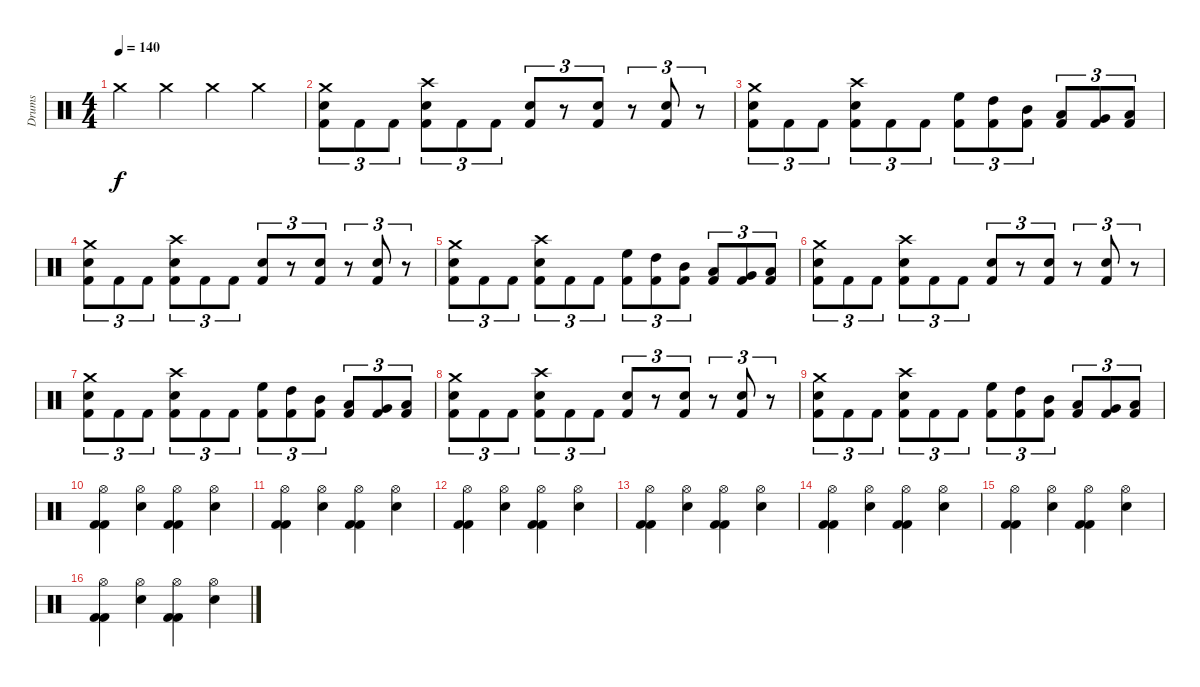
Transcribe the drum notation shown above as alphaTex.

\track ("Drums" "Drums") {instrument percussion}
\staff {score}
\articulation defaults
\ts (4 4)
\tempo 140
\clef neutral
\ks c "Crash medium (hit)".4{dy f} "Crash medium (hit)".4 "Crash medium (hit)".4 "Crash medium (hit)".4
|
("Crash medium (hit)" "Electric Snare (hit)" "Kick (hit) 2").8{tu (3 2)} "Kick (hit) 2".8{tu (3 2)} "Kick (hit) 2".8{tu (3 2)} ("Crash high (hit)" "Electric Snare (hit)" "Kick (hit) 2").8{tu (3 2)} "Kick (hit) 2".8{tu (3 2)} "Kick (hit) 2".8{tu (3 2)} ("Electric Snare (hit)" "Kick (hit) 2").8{tu (3 2)} r.8{tu (3 2)} ("Electric Snare (hit)" "Kick (hit) 2").8{tu (3 2)} r.8{tu (3 2)} ("Electric Snare (hit)" "Kick (hit) 2").8{tu (3 2)} r.8{tu (3 2)} |
("Crash medium (hit)" "Electric Snare (hit)" "Kick (hit) 2").8{tu (3 2)} "Kick (hit) 2".8{tu (3 2)} "Kick (hit) 2".8{tu (3 2)} ("Crash high (hit)" "Electric Snare (hit)" "Kick (hit) 2").8{tu (3 2)} "Kick (hit) 2".8{tu (3 2)} "Kick (hit) 2".8{tu (3 2)} ("High Floor Tom (hit)" "Kick (hit) 2").8{tu (3 2)} ("High Tom (hit)" "Kick (hit) 2").8{tu (3 2)} ("Mid Tom (hit)" "Kick (hit) 2").8{tu (3 2)} ("Low Tom (hit)" "Kick (hit) 2").8{tu (3 2)} ("Very Low Tom (hit)" "Kick (hit) 2").8{tu (3 2)} ("Low Floor Tom (hit)" "Kick (hit) 2").8{tu (3 2)} |
("Crash medium (hit)" "Electric Snare (hit)" "Kick (hit) 2").8{tu (3 2)} "Kick (hit) 2".8{tu (3 2)} "Kick (hit) 2".8{tu (3 2)} ("Crash high (hit)" "Electric Snare (hit)" "Kick (hit) 2").8{tu (3 2)} "Kick (hit) 2".8{tu (3 2)} "Kick (hit) 2".8{tu (3 2)} ("Electric Snare (hit)" "Kick (hit) 2").8{tu (3 2)} r.8{tu (3 2)} ("Electric Snare (hit)" "Kick (hit) 2").8{tu (3 2)} r.8{tu (3 2)} ("Electric Snare (hit)" "Kick (hit) 2").8{tu (3 2)} r.8{tu (3 2)} |
("Crash medium (hit)" "Electric Snare (hit)" "Kick (hit) 2").8{tu (3 2)} "Kick (hit) 2".8{tu (3 2)} "Kick (hit) 2".8{tu (3 2)} ("Crash high (hit)" "Electric Snare (hit)" "Kick (hit) 2").8{tu (3 2)} "Kick (hit) 2".8{tu (3 2)} "Kick (hit) 2".8{tu (3 2)} ("High Floor Tom (hit)" "Kick (hit) 2").8{tu (3 2)} ("High Tom (hit)" "Kick (hit) 2").8{tu (3 2)} ("Mid Tom (hit)" "Kick (hit) 2").8{tu (3 2)} ("Low Tom (hit)" "Kick (hit) 2").8{tu (3 2)} ("Very Low Tom (hit)" "Kick (hit) 2").8{tu (3 2)} ("Low Floor Tom (hit)" "Kick (hit) 2").8{tu (3 2)} |
("Crash medium (hit)" "Electric Snare (hit)" "Kick (hit) 2").8{tu (3 2)} "Kick (hit) 2".8{tu (3 2)} "Kick (hit) 2".8{tu (3 2)} ("Crash high (hit)" "Electric Snare (hit)" "Kick (hit) 2").8{tu (3 2)} "Kick (hit) 2".8{tu (3 2)} "Kick (hit) 2".8{tu (3 2)} ("Electric Snare (hit)" "Kick (hit) 2").8{tu (3 2)} r.8{tu (3 2)} ("Electric Snare (hit)" "Kick (hit) 2").8{tu (3 2)} r.8{tu (3 2)} ("Electric Snare (hit)" "Kick (hit) 2").8{tu (3 2)} r.8{tu (3 2)} |
("Crash medium (hit)" "Electric Snare (hit)" "Kick (hit) 2").8{tu (3 2)} "Kick (hit) 2".8{tu (3 2)} "Kick (hit) 2".8{tu (3 2)} ("Crash high (hit)" "Electric Snare (hit)" "Kick (hit) 2").8{tu (3 2)} "Kick (hit) 2".8{tu (3 2)} "Kick (hit) 2".8{tu (3 2)} ("High Floor Tom (hit)" "Kick (hit) 2").8{tu (3 2)} ("High Tom (hit)" "Kick (hit) 2").8{tu (3 2)} ("Mid Tom (hit)" "Kick (hit) 2").8{tu (3 2)} ("Low Tom (hit)" "Kick (hit) 2").8{tu (3 2)} ("Very Low Tom (hit)" "Kick (hit) 2").8{tu (3 2)} ("Low Floor Tom (hit)" "Kick (hit) 2").8{tu (3 2)} |
("Crash medium (hit)" "Electric Snare (hit)" "Kick (hit) 2").8{tu (3 2)} "Kick (hit) 2".8{tu (3 2)} "Kick (hit) 2".8{tu (3 2)} ("Crash high (hit)" "Electric Snare (hit)" "Kick (hit) 2").8{tu (3 2)} "Kick (hit) 2".8{tu (3 2)} "Kick (hit) 2".8{tu (3 2)} ("Electric Snare (hit)" "Kick (hit) 2").8{tu (3 2)} r.8{tu (3 2)} ("Electric Snare (hit)" "Kick (hit) 2").8{tu (3 2)} r.8{tu (3 2)} ("Electric Snare (hit)" "Kick (hit) 2").8{tu (3 2)} r.8{tu (3 2)} |
("Crash medium (hit)" "Electric Snare (hit)" "Kick (hit) 2").8{tu (3 2)} "Kick (hit) 2".8{tu (3 2)} "Kick (hit) 2".8{tu (3 2)} ("Crash high (hit)" "Electric Snare (hit)" "Kick (hit) 2").8{tu (3 2)} "Kick (hit) 2".8{tu (3 2)} "Kick (hit) 2".8{tu (3 2)} ("High Floor Tom (hit)" "Kick (hit) 2").8{tu (3 2)} ("High Tom (hit)" "Kick (hit) 2").8{tu (3 2)} ("Mid Tom (hit)" "Kick (hit) 2").8{tu (3 2)} ("Low Tom (hit)" "Kick (hit) 2").8{tu (3 2)} ("Very Low Tom (hit)" "Kick (hit) 2").8{tu (3 2)} ("Low Floor Tom (hit)" "Kick (hit) 2").8{tu (3 2)} |
("Hi-Hat (open)" "Kick (hit) 2" "Kick (hit) 2").4 ("Hi-Hat (open)" "Electric Snare (hit)").4 ("Hi-Hat (open)" "Kick (hit) 2" "Kick (hit) 2").4 ("Hi-Hat (open)" "Electric Snare (hit)").4 |
("Hi-Hat (open)" "Kick (hit) 2" "Kick (hit) 2").4 ("Hi-Hat (open)" "Electric Snare (hit)").4 ("Hi-Hat (open)" "Kick (hit) 2" "Kick (hit) 2").4 ("Hi-Hat (open)" "Electric Snare (hit)").4 |
("Hi-Hat (open)" "Kick (hit) 2" "Kick (hit) 2").4 ("Hi-Hat (open)" "Electric Snare (hit)").4 ("Hi-Hat (open)" "Kick (hit) 2" "Kick (hit) 2").4 ("Hi-Hat (open)" "Electric Snare (hit)").4 |
("Hi-Hat (open)" "Kick (hit) 2" "Kick (hit) 2").4 ("Hi-Hat (open)" "Electric Snare (hit)").4 ("Hi-Hat (open)" "Kick (hit) 2" "Kick (hit) 2").4 ("Hi-Hat (open)" "Electric Snare (hit)").4 |
("Hi-Hat (open)" "Kick (hit) 2" "Kick (hit) 2").4 ("Hi-Hat (open)" "Electric Snare (hit)").4 ("Hi-Hat (open)" "Kick (hit) 2" "Kick (hit) 2").4 ("Hi-Hat (open)" "Electric Snare (hit)").4 |
("Hi-Hat (open)" "Kick (hit) 2" "Kick (hit) 2").4 ("Hi-Hat (open)" "Electric Snare (hit)").4 ("Hi-Hat (open)" "Kick (hit) 2" "Kick (hit) 2").4 ("Hi-Hat (open)" "Electric Snare (hit)").4 |
("Hi-Hat (open)" "Kick (hit) 2" "Kick (hit) 2").4 ("Hi-Hat (open)" "Electric Snare (hit)").4 ("Hi-Hat (open)" "Kick (hit) 2" "Kick (hit) 2").4 ("Hi-Hat (open)" "Electric Snare (hit)").4
